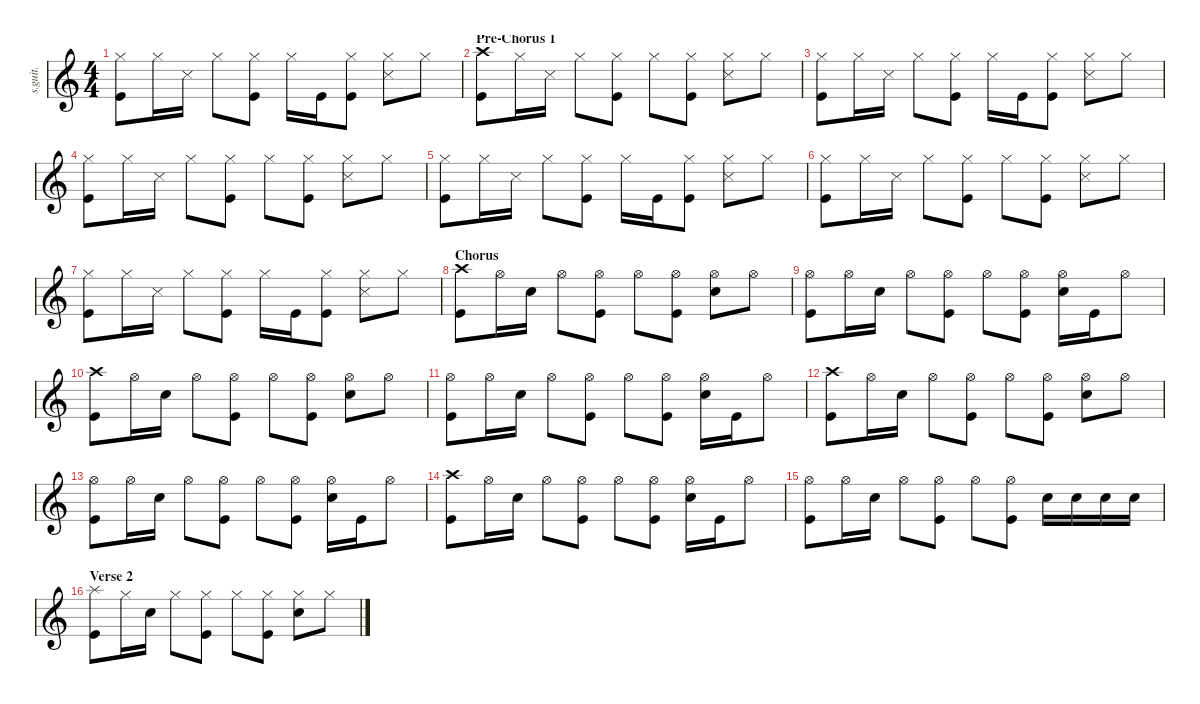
\defaultSystemsLayout 4
\hideDynamics
\bracketExtendMode nobrackets
\track ("Rob Bourdon" "s.guit.") {instrument percussion}
\staff {score}
\articulation defaults
\ts (4 4)
\tempo (110 hide)
\clef g2
\ks c
("Hi-Hat (closed)" "Kick (hit)").8{dy f} "Hi-Hat (closed)".16 "Snare (side stick) 3".16 "Hi-Hat (closed)".8 ("Hi-Hat (closed)" "Kick (hit)").8 "Hi-Hat (closed)".16 "Kick (hit)".16 ("Hi-Hat (closed)" "Kick (hit)").8 ("Hi-Hat (closed)" "Snare (side stick) 3").8 "Hi-Hat (closed)".8 |
\section ("" "Pre-Chorus 1")
("Crash high (hit)" "Kick (hit)").8 "Hi-Hat (closed)".16 "Snare (side stick) 3".16 "Hi-Hat (closed)".8 ("Hi-Hat (closed)" "Kick (hit)").8 "Hi-Hat (closed)".8 ("Hi-Hat (closed)" "Kick (hit)").8 ("Hi-Hat (closed)" "Snare (side stick) 3").8 "Hi-Hat (closed)".8 |
("Hi-Hat (closed)" "Kick (hit)").8 "Hi-Hat (closed)".16 "Snare (side stick) 3".16 "Hi-Hat (closed)".8 ("Hi-Hat (closed)" "Kick (hit)").8 "Hi-Hat (closed)".16 "Kick (hit)".16 ("Hi-Hat (closed)" "Kick (hit)").8 ("Hi-Hat (closed)" "Snare (side stick) 3").8 "Hi-Hat (closed)".8 |
("Hi-Hat (closed)" "Kick (hit)").8 "Hi-Hat (closed)".16 "Snare (side stick) 3".16 "Hi-Hat (closed)".8 ("Hi-Hat (closed)" "Kick (hit)").8 "Hi-Hat (closed)".8 ("Hi-Hat (closed)" "Kick (hit)").8 ("Hi-Hat (closed)" "Snare (side stick) 3").8 "Hi-Hat (closed)".8 |
("Hi-Hat (closed)" "Kick (hit)").8 "Hi-Hat (closed)".16 "Snare (side stick) 3".16 "Hi-Hat (closed)".8 ("Hi-Hat (closed)" "Kick (hit)").8 "Hi-Hat (closed)".16 "Kick (hit)".16 ("Hi-Hat (closed)" "Kick (hit)").8 ("Hi-Hat (closed)" "Snare (side stick) 3").8 "Hi-Hat (closed)".8 |
("Hi-Hat (closed)" "Kick (hit)").8 "Hi-Hat (closed)".16 "Snare (side stick) 3".16 "Hi-Hat (closed)".8 ("Hi-Hat (closed)" "Kick (hit)").8 "Hi-Hat (closed)".8 ("Hi-Hat (closed)" "Kick (hit)").8 ("Hi-Hat (closed)" "Snare (side stick) 3").8 "Hi-Hat (closed)".8 |
("Hi-Hat (closed)" "Kick (hit)").8 "Hi-Hat (closed)".16 "Snare (side stick) 3".16 "Hi-Hat (closed)".8 ("Hi-Hat (closed)" "Kick (hit)").8 "Hi-Hat (closed)".16 "Kick (hit)".16 ("Hi-Hat (closed)" "Kick (hit)").8 ("Hi-Hat (closed)" "Snare (side stick) 3").8 "Hi-Hat (closed)".8 |
\section ("" "Chorus")
("Crash high (hit)" "Kick (hit)").8 "Hi-Hat (open)".16 "Snare (hit) 2".16 "Hi-Hat (open)".8 ("Hi-Hat (open)" "Kick (hit)").8 "Hi-Hat (open)".8 ("Hi-Hat (open)" "Kick (hit)").8 ("Hi-Hat (open)" "Snare (hit) 2").8 "Hi-Hat (open)".8 |
("Hi-Hat (open)" "Kick (hit)").8 "Hi-Hat (open)".16 "Snare (hit) 2".16 "Hi-Hat (open)".8 ("Hi-Hat (open)" "Kick (hit)").8 "Hi-Hat (open)".8 ("Hi-Hat (open)" "Kick (hit)").8 ("Hi-Hat (open)" "Snare (hit) 2").16 "Kick (hit)".16 "Hi-Hat (open)".8 |
("Crash high (hit)" "Kick (hit)").8 "Hi-Hat (open)".16 "Snare (hit) 2".16 "Hi-Hat (open)".8 ("Hi-Hat (open)" "Kick (hit)").8 "Hi-Hat (open)".8 ("Hi-Hat (open)" "Kick (hit)").8 ("Hi-Hat (open)" "Snare (hit) 2").8 "Hi-Hat (open)".8 |
("Hi-Hat (open)" "Kick (hit)").8 "Hi-Hat (open)".16 "Snare (hit) 2".16 "Hi-Hat (open)".8 ("Hi-Hat (open)" "Kick (hit)").8 "Hi-Hat (open)".8 ("Hi-Hat (open)" "Kick (hit)").8 ("Hi-Hat (open)" "Snare (hit) 2").16 "Kick (hit)".16 "Hi-Hat (open)".8 |
("Crash high (hit)" "Kick (hit)").8 "Hi-Hat (open)".16 "Snare (hit) 2".16 "Hi-Hat (open)".8 ("Hi-Hat (open)" "Kick (hit)").8 "Hi-Hat (open)".8 ("Hi-Hat (open)" "Kick (hit)").8 ("Hi-Hat (open)" "Snare (hit) 2").8 "Hi-Hat (open)".8 |
("Hi-Hat (open)" "Kick (hit)").8 "Hi-Hat (open)".16 "Snare (hit) 2".16 "Hi-Hat (open)".8 ("Hi-Hat (open)" "Kick (hit)").8 "Hi-Hat (open)".8 ("Hi-Hat (open)" "Kick (hit)").8 ("Hi-Hat (open)" "Snare (hit) 2").16 "Kick (hit)".16 "Hi-Hat (open)".8 |
("Crash high (hit)" "Kick (hit)").8 "Hi-Hat (open)".16 "Snare (hit) 2".16 "Hi-Hat (open)".8 ("Hi-Hat (open)" "Kick (hit)").8 "Hi-Hat (open)".8 ("Hi-Hat (open)" "Kick (hit)").8 ("Hi-Hat (open)" "Snare (hit) 2").16 "Kick (hit)".16 "Hi-Hat (open)".8 |
("Hi-Hat (open)" "Kick (hit)").8 "Hi-Hat (open)".16 "Snare (hit) 2".16 "Hi-Hat (open)".8 ("Hi-Hat (open)" "Kick (hit)").8 "Hi-Hat (open)".8 ("Hi-Hat (open)" "Kick (hit)").8 "Snare (hit) 2".16 "Snare (hit) 2".16 "Snare (hit) 2".16 "Snare (hit) 2".16 |
\section ("" "Verse 2")
("Splash (hit)" "Kick (hit)").8 "Hi-Hat (closed)".16 "Snare (hit) 2".16 "Hi-Hat (closed)".8 ("Hi-Hat (closed)" "Kick (hit)").8 "Hi-Hat (closed)".8 ("Hi-Hat (closed)" "Kick (hit)").8 ("Hi-Hat (closed)" "Snare (hit) 2").8 "Hi-Hat (closed)".8
